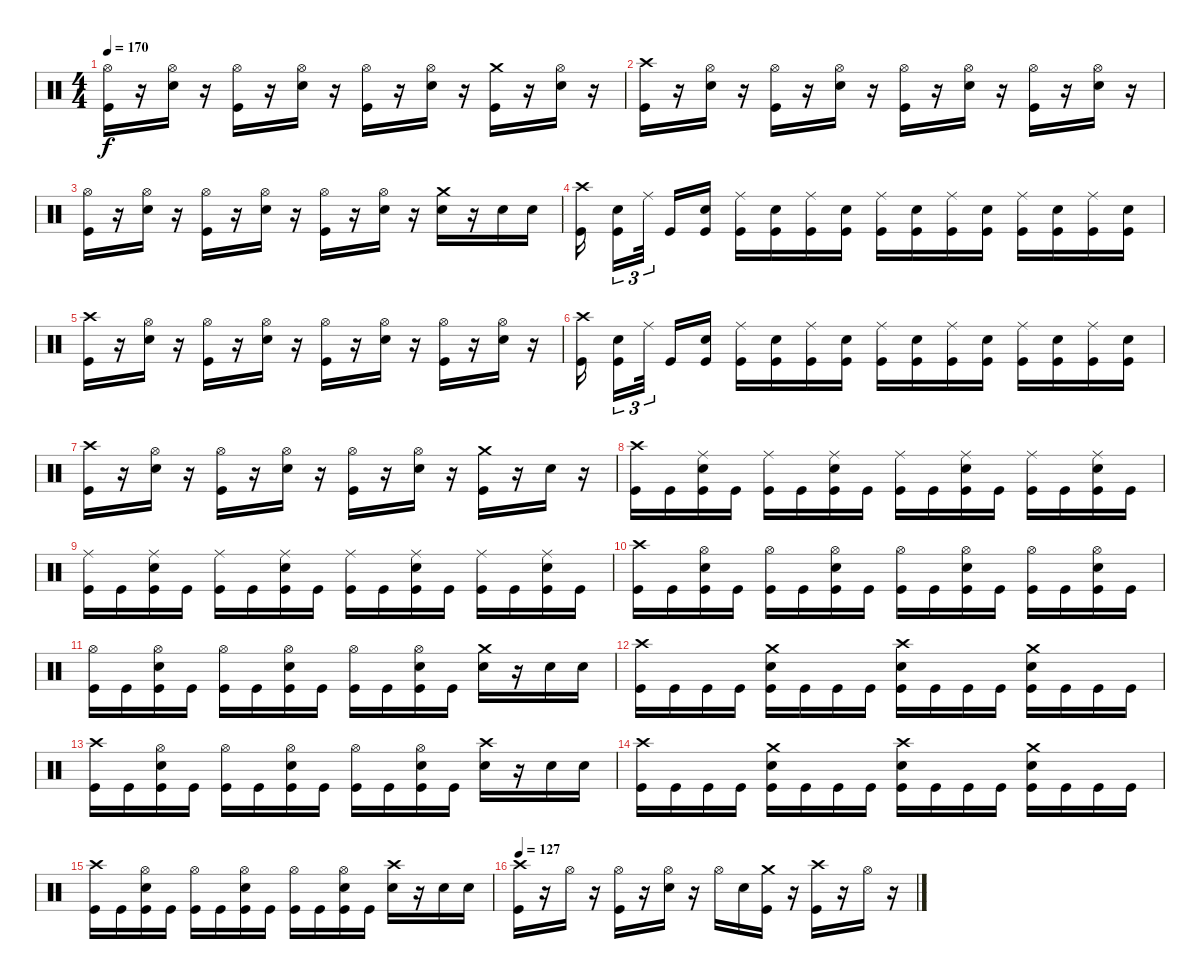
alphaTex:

\track "" {instrument percussion}
\staff {score}
\articulation defaults
\ts (4 4)
\tempo 170
\clef neutral
\ks c
("Kick (hit)" "Hi-Hat (open)").16{dy f} r.16 ("Snare (hit) 2" "Hi-Hat (open)").16 r.16 ("Hi-Hat (open)" "Kick (hit)").16 r.16 ("Snare (hit) 2" "Hi-Hat (open)").16 r.16 ("Hi-Hat (open)" "Kick (hit)").16 r.16 ("Snare (hit) 2" "Hi-Hat (open)").16 r.16 ("Kick (hit)" "Crash medium (hit)").16 r.16 ("Snare (hit) 2" "Hi-Hat (open)").16 r.16 |
("Crash high (hit)" "Kick (hit)").16 r.16 ("Snare (hit) 2" "Hi-Hat (open)").16 r.16 ("Kick (hit)" "Hi-Hat (open)").16 r.16 ("Snare (hit) 2" "Hi-Hat (open)").16 r.16 ("Kick (hit)" "Hi-Hat (open)").16 r.16 ("Snare (hit) 2" "Hi-Hat (open)").16 r.16 ("Kick (hit)" "Hi-Hat (open)").16 r.16 ("Snare (hit) 2" "Hi-Hat (open)").16 r.16 |
("Kick (hit)" "Hi-Hat (open)").16 r.16 ("Snare (hit) 2" "Hi-Hat (open)").16 r.16 ("Hi-Hat (open)" "Kick (hit)").16 r.16 ("Snare (hit) 2" "Hi-Hat (open)").16 r.16 ("Hi-Hat (open)" "Kick (hit)").16 r.16 ("Snare (hit) 2" "Hi-Hat (open)").16 r.16 ("Snare (hit) 2" "Crash medium (hit)").16 r.16 "Snare (hit) 2".16 "Snare (hit) 2".16 |
("Kick (hit)" "Crash high (hit)").16{beam splitsecondary} ("Snare (hit) 2" "Kick (hit)").16{tu (3 2)} "Ride (middle)".32{tu (3 2) beam splitsecondary} "Kick (hit)".16 ("Snare (hit) 2" "Kick (hit)").16 ("Ride (middle)" "Kick (hit)").16 ("Snare (hit) 2" "Kick (hit)").16 ("Ride (middle)" "Kick (hit)").16 ("Snare (hit) 2" "Kick (hit)").16 ("Ride (middle)" "Kick (hit)").16 ("Snare (hit) 2" "Kick (hit)").16 ("Kick (hit)" "Ride (middle)").16 ("Snare (hit) 2" "Kick (hit)").16 ("Ride (middle)" "Kick (hit)").16 ("Kick (hit)" "Snare (hit) 2").16 ("Ride (middle)" "Kick (hit)").16 ("Snare (hit) 2" "Kick (hit)").16 |
("Kick (hit)" "Crash high (hit)").16 r.16 ("Hi-Hat (open)" "Snare (hit) 2").16 r.16 ("Hi-Hat (open)" "Kick (hit)").16 r.16 ("Hi-Hat (open)" "Snare (hit) 2").16 r.16 ("Hi-Hat (open)" "Kick (hit)").16 r.16 ("Hi-Hat (open)" "Snare (hit) 2").16 r.16 ("Hi-Hat (open)" "Kick (hit)").16 r.16 ("Hi-Hat (open)" "Snare (hit) 2").16 r.16 |
("Kick (hit)" "Crash high (hit)").16{beam splitsecondary} ("Snare (hit) 2" "Kick (hit)").16{tu (3 2)} "Ride (middle)".32{tu (3 2) beam splitsecondary} "Kick (hit)".16 ("Snare (hit) 2" "Kick (hit)").16 ("Ride (middle)" "Kick (hit)").16 ("Snare (hit) 2" "Kick (hit)").16 ("Ride (middle)" "Kick (hit)").16 ("Snare (hit) 2" "Kick (hit)").16 ("Ride (middle)" "Kick (hit)").16 ("Snare (hit) 2" "Kick (hit)").16 ("Kick (hit)" "Ride (middle)").16 ("Snare (hit) 2" "Kick (hit)").16 ("Ride (middle)" "Kick (hit)").16 ("Kick (hit)" "Snare (hit) 2").16 ("Ride (middle)" "Kick (hit)").16 ("Snare (hit) 2" "Kick (hit)").16 |
("Kick (hit)" "Crash high (hit)").16 r.16 ("Hi-Hat (open)" "Snare (hit) 2").16 r.16 ("Hi-Hat (open)" "Kick (hit)").16 r.16 ("Hi-Hat (open)" "Snare (hit) 2").16 r.16 ("Hi-Hat (open)" "Kick (hit)").16 r.16 ("Hi-Hat (open)" "Snare (hit) 2").16 r.16 ("Crash medium (hit)" "Kick (hit)").16 r.16 "Snare (hit) 2".16 r.16 |
("Crash high (hit)" "Kick (hit)").16 "Kick (hit)".16 ("Ride (middle)" "Kick (hit)" "Snare (hit) 2").16 "Kick (hit)".16 ("Kick (hit)" "Ride (middle)").16 "Kick (hit)".16 ("Snare (hit) 2" "Ride (middle)" "Kick (hit)").16 "Kick (hit)".16 ("Ride (middle)" "Kick (hit)").16 "Kick (hit)".16 ("Kick (hit)" "Ride (middle)" "Snare (hit) 2").16 "Kick (hit)".16 ("Ride (middle)" "Kick (hit)").16 "Kick (hit)".16 ("Snare (hit) 2" "Ride (middle)" "Kick (hit)").16 "Kick (hit)".16 |
("Ride (middle)" "Kick (hit)").16 "Kick (hit)".16 ("Snare (hit) 2" "Kick (hit)" "Ride (middle)").16 "Kick (hit)".16 ("Ride (middle)" "Kick (hit)").16 "Kick (hit)".16 ("Snare (hit) 2" "Kick (hit)" "Ride (middle)").16 "Kick (hit)".16 ("Kick (hit)" "Ride (middle)").16 "Kick (hit)".16 ("Snare (hit) 2" "Kick (hit)" "Ride (middle)").16 "Kick (hit)".16 ("Kick (hit)" "Ride (middle)").16 "Kick (hit)".16 ("Snare (hit) 2" "Kick (hit)" "Ride (middle)").16 "Kick (hit)".16 |
("Crash high (hit)" "Kick (hit)").16 "Kick (hit)".16 ("Snare (hit) 2" "Hi-Hat (open)" "Kick (hit)").16 "Kick (hit)".16 ("Hi-Hat (open)" "Kick (hit)").16 "Kick (hit)".16 ("Kick (hit)" "Hi-Hat (open)" "Snare (hit) 2").16 "Kick (hit)".16 ("Hi-Hat (open)" "Kick (hit)").16 "Kick (hit)".16 ("Snare (hit) 2" "Hi-Hat (open)" "Kick (hit)").16 "Kick (hit)".16 ("Hi-Hat (open)" "Kick (hit)").16 "Kick (hit)".16 ("Snare (hit) 2" "Hi-Hat (open)" "Kick (hit)").16 "Kick (hit)".16 |
("Hi-Hat (open)" "Kick (hit)").16 "Kick (hit)".16 ("Snare (hit) 2" "Hi-Hat (open)" "Kick (hit)").16 "Kick (hit)".16 ("Hi-Hat (open)" "Kick (hit)").16 "Kick (hit)".16 ("Snare (hit) 2" "Hi-Hat (open)" "Kick (hit)").16 "Kick (hit)".16 ("Hi-Hat (open)" "Kick (hit)").16 "Kick (hit)".16 ("Snare (hit) 2" "Hi-Hat (open)" "Kick (hit)").16 "Kick (hit)".16 ("Snare (hit) 2" "Crash medium (hit)").16 r.16 "Snare (hit) 2".16 "Snare (hit) 2".16 |
("Crash high (hit)" "Kick (hit)").16 "Kick (hit)".16 "Kick (hit)".16 "Kick (hit)".16 ("Crash medium (hit)" "Kick (hit)" "Snare (hit) 2").16 "Kick (hit)".16 "Kick (hit)".16 "Kick (hit)".16 ("Snare (hit) 2" "Crash high (hit)" "Kick (hit)").16 "Kick (hit)".16 "Kick (hit)".16 "Kick (hit)".16 ("Snare (hit) 2" "Crash medium (hit)" "Kick (hit)").16 "Kick (hit)".16 "Kick (hit)".16 "Kick (hit)".16 |
("Crash high (hit)" "Kick (hit)").16 "Kick (hit)".16 ("Snare (hit) 2" "Hi-Hat (open)" "Kick (hit)").16 "Kick (hit)".16 ("Hi-Hat (open)" "Kick (hit)").16 "Kick (hit)".16 ("Snare (hit) 2" "Kick (hit)" "Hi-Hat (open)").16 "Kick (hit)".16 ("Hi-Hat (open)" "Kick (hit)").16 "Kick (hit)".16 ("Snare (hit) 2" "Hi-Hat (open)" "Kick (hit)").16 "Kick (hit)".16 ("Snare (hit) 2" "Crash high (hit)").16 r.16 "Snare (hit) 2".16 "Snare (hit) 2".16 |
("Crash high (hit)" "Kick (hit)").16 "Kick (hit)".16 "Kick (hit)".16 "Kick (hit)".16 ("Crash medium (hit)" "Kick (hit)" "Snare (hit) 2").16 "Kick (hit)".16 "Kick (hit)".16 "Kick (hit)".16 ("Snare (hit) 2" "Crash high (hit)" "Kick (hit)").16 "Kick (hit)".16 "Kick (hit)".16 "Kick (hit)".16 ("Snare (hit) 2" "Crash medium (hit)" "Kick (hit)").16 "Kick (hit)".16 "Kick (hit)".16 "Kick (hit)".16 |
("Crash high (hit)" "Kick (hit)").16 "Kick (hit)".16 ("Snare (hit) 2" "Hi-Hat (open)" "Kick (hit)").16 "Kick (hit)".16 ("Hi-Hat (open)" "Kick (hit)").16 "Kick (hit)".16 ("Snare (hit) 2" "Kick (hit)" "Hi-Hat (open)").16 "Kick (hit)".16 ("Hi-Hat (open)" "Kick (hit)").16 "Kick (hit)".16 ("Snare (hit) 2" "Hi-Hat (open)" "Kick (hit)").16 "Kick (hit)".16 ("Snare (hit) 2" "Crash high (hit)").16 r.16 "Snare (hit) 2".16 "Snare (hit) 2".16 |
\tempo 127
("Crash high (hit)" "Kick (hit)").16 r.16 "Hi-Hat (open)".16 r.16 ("Kick (hit)" "Hi-Hat (open)").16 r.16 ("Snare (hit) 2" "Hi-Hat (open)").16 r.16 "Hi-Hat (open)".16 "Snare (hit) 2".16 ("Kick (hit)" "Crash medium (hit)").16 r.16 ("Kick (hit)" "Crash high (hit)").16 r.16 "Hi-Hat (open)".16 r.16
